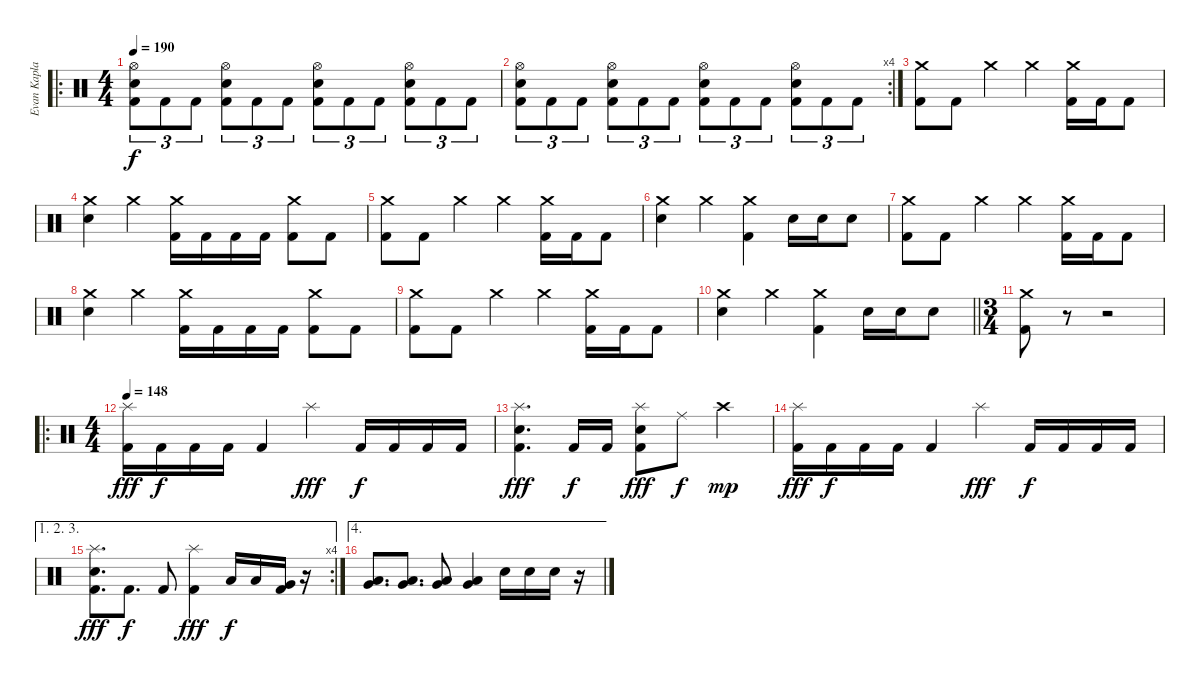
\track ("Evan Kaplan (Drums)" "Evan Kapla") {instrument percussion}
\staff {score}
\articulation defaults
\ro
\ts (4 4)
\tempo 190
\clef neutral
\ks c
("Hi-Hat (open)" "Electric Snare (hit)" "Kick (hit) 2").8{tu (3 2) dy f} "Kick (hit) 2".8{tu (3 2)} "Kick (hit) 2".8{tu (3 2)} ("Hi-Hat (open)" "Electric Snare (hit)" "Kick (hit) 2").8{tu (3 2)} "Kick (hit) 2".8{tu (3 2)} "Kick (hit) 2".8{tu (3 2)} ("Hi-Hat (open)" "Electric Snare (hit)" "Kick (hit) 2").8{tu (3 2)} "Kick (hit) 2".8{tu (3 2)} "Kick (hit) 2".8{tu (3 2)} ("Hi-Hat (open)" "Electric Snare (hit)" "Kick (hit) 2").8{tu (3 2)} "Kick (hit) 2".8{tu (3 2)} "Kick (hit) 2".8{tu (3 2)} |
\rc 4
("Hi-Hat (open)" "Electric Snare (hit)" "Kick (hit) 2").8{tu (3 2)} "Kick (hit) 2".8{tu (3 2)} "Kick (hit) 2".8{tu (3 2)} ("Hi-Hat (open)" "Electric Snare (hit)" "Kick (hit) 2").8{tu (3 2)} "Kick (hit) 2".8{tu (3 2)} "Kick (hit) 2".8{tu (3 2)} ("Hi-Hat (open)" "Electric Snare (hit)" "Kick (hit) 2").8{tu (3 2)} "Kick (hit) 2".8{tu (3 2)} "Kick (hit) 2".8{tu (3 2)} ("Hi-Hat (open)" "Electric Snare (hit)" "Kick (hit) 2").8{tu (3 2)} "Kick (hit) 2".8{tu (3 2)} "Kick (hit) 2".8{tu (3 2)} |
("Crash medium (hit)" "Kick (hit) 2").8 "Kick (hit) 2".8 "Crash medium (hit)".4 "Crash medium (hit)".4 ("Crash medium (hit)" "Kick (hit) 2").16 "Kick (hit) 2".16 "Kick (hit) 2".8 |
("Crash medium (hit)" "Electric Snare (hit)").4 "Crash medium (hit)".4 ("Crash medium (hit)" "Kick (hit) 2").16 "Kick (hit) 2".16 "Kick (hit) 2".16 "Kick (hit) 2".16 ("Crash medium (hit)" "Kick (hit) 2").8 "Kick (hit) 2".8 |
("Crash medium (hit)" "Kick (hit) 2").8 "Kick (hit) 2".8 "Crash medium (hit)".4 "Crash medium (hit)".4 ("Crash medium (hit)" "Kick (hit) 2").16 "Kick (hit) 2".16 "Kick (hit) 2".8 |
("Crash medium (hit)" "Electric Snare (hit)").4 "Crash medium (hit)".4 ("Crash medium (hit)" "Kick (hit) 2").4 "Electric Snare (hit)".16 "Electric Snare (hit)".16 "Electric Snare (hit)".8 |
("Crash medium (hit)" "Kick (hit) 2").8 "Kick (hit) 2".8 "Crash medium (hit)".4 "Crash medium (hit)".4 ("Crash medium (hit)" "Kick (hit) 2").16 "Kick (hit) 2".16 "Kick (hit) 2".8 |
("Crash medium (hit)" "Electric Snare (hit)").4 "Crash medium (hit)".4 ("Crash medium (hit)" "Kick (hit) 2").16 "Kick (hit) 2".16 "Kick (hit) 2".16 "Kick (hit) 2".16 ("Crash medium (hit)" "Kick (hit) 2").8 "Kick (hit) 2".8 |
("Crash medium (hit)" "Kick (hit) 2").8 "Kick (hit) 2".8 "Crash medium (hit)".4 "Crash medium (hit)".4 ("Crash medium (hit)" "Kick (hit) 2").16 "Kick (hit) 2".16 "Kick (hit) 2".8 |
\barLineRight lightlight
("Crash medium (hit)" "Electric Snare (hit)").4 "Crash medium (hit)".4 ("Crash medium (hit)" "Kick (hit) 2").4 "Electric Snare (hit)".16 "Electric Snare (hit)".16 "Electric Snare (hit)".8 |
\ts (3 4)
("Crash medium (hit)" "Kick (hit) 2").8 r.8{volume 0} r.2 |
\ro
\ts (4 4)
\tempo 148
("Splash (hit)" "Kick (hit) 2").16{dy fff volume 13} "Kick (hit) 2".16{dy f} "Kick (hit) 2".16 "Kick (hit) 2".16 "Kick (hit) 2".4 "Splash (hit)".4{dy fff} "Kick (hit) 2".16{dy f} "Kick (hit) 2".16 "Kick (hit) 2".16 "Kick (hit) 2".16 |
("Splash (hit)" "Electric Snare (hit)" "Kick (hit) 2").4{d dy fff} "Kick (hit) 2".16{dy f} "Kick (hit) 2".16 ("Splash (hit)" "Electric Snare (hit)" "Kick (hit) 2").8{dy fff} "Ride (middle)".8{dy f} "Crash high (hit)".4{dy mp} |
("Splash (hit)" "Kick (hit) 2").16{dy fff} "Kick (hit) 2".16{dy f} "Kick (hit) 2".16 "Kick (hit) 2".16 "Kick (hit) 2".4 "Splash (hit)".4{dy fff} "Kick (hit) 2".16{dy f} "Kick (hit) 2".16 "Kick (hit) 2".16 "Kick (hit) 2".16 |
\ae (1 2 3)
\rc 4
("Splash (hit)" "Electric Snare (hit)" "Kick (hit) 2").8{d dy fff} "Kick (hit) 2".8{d dy f} "Kick (hit) 2".8 ("Splash (hit)" "Kick (hit) 2").4{dy fff} "Low Tom (hit)".16{dy f} "Low Tom (hit)".16 ("Very Low Tom (hit)" "Kick (hit) 2").16 r.16 |
\ae 4
("Low Tom (hit)" "Very Low Tom (hit)").8{d} ("Low Tom (hit)" "Very Low Tom (hit)").8{d} ("Low Tom (hit)" "Very Low Tom (hit)").8 ("Low Tom (hit)" "Very Low Tom (hit)").4 "Electric Snare (hit)".16 "Electric Snare (hit)".16 "Electric Snare (hit)".16 r.16
